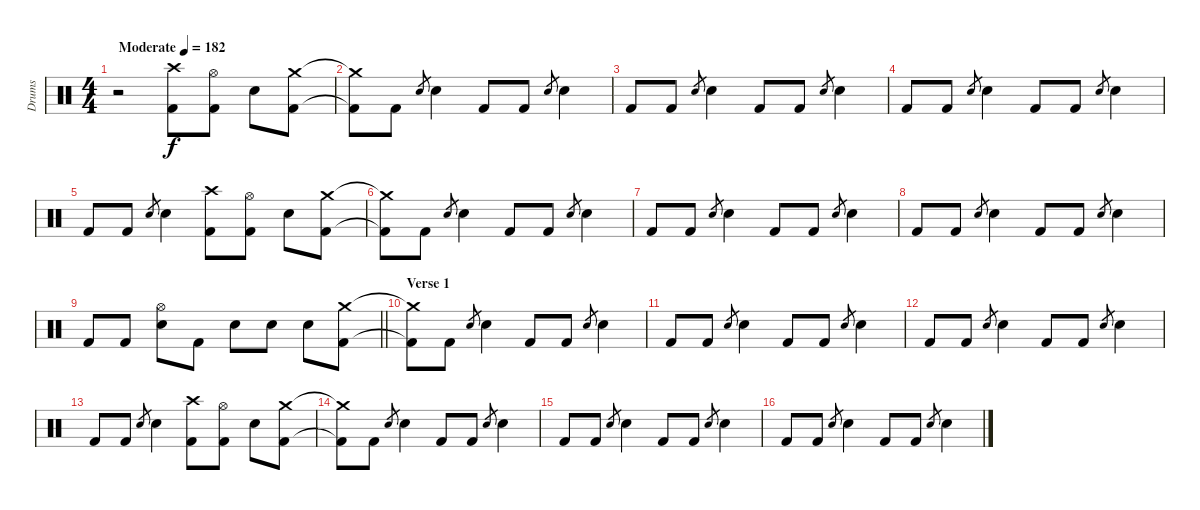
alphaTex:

\track ("Drums" "Drums") {instrument percussion}
\staff {score}
\articulation defaults
\ts (4 4)
\tempo (182 "Moderate")
\clef neutral
\ks c
r.2{dy f} ("Crash high (hit)" "Kick (hit) 2").8 ("Hi-Hat (open)" "Kick (hit) 2").8 "Snare (hit) 2".8 ("Crash medium (hit)" "Kick (hit) 2").8 |
("Crash medium (hit)"{t} "Kick (hit) 2"{t}).8 "Kick (hit) 2".8 "Snare (hit) 2".8{gr} "Snare (hit) 2".4 "Kick (hit) 2".8 "Kick (hit) 2".8 "Snare (hit) 2".8{gr} "Snare (hit) 2".4 |
"Kick (hit) 2".8 "Kick (hit) 2".8 "Snare (hit) 2".8{gr} "Snare (hit) 2".4 "Kick (hit) 2".8 "Kick (hit) 2".8 "Snare (hit) 2".8{gr} "Snare (hit) 2".4 |
"Kick (hit) 2".8 "Kick (hit) 2".8 "Snare (hit) 2".8{gr} "Snare (hit) 2".4 "Kick (hit) 2".8 "Kick (hit) 2".8 "Snare (hit) 2".8{gr} "Snare (hit) 2".4 |
"Kick (hit) 2".8 "Kick (hit) 2".8 "Snare (hit) 2".8{gr} "Snare (hit) 2".4 ("Crash high (hit)" "Kick (hit) 2").8 ("Hi-Hat (open)" "Kick (hit) 2").8 "Snare (hit) 2".8 ("Crash medium (hit)" "Kick (hit) 2").8 |
("Crash medium (hit)"{t} "Kick (hit) 2"{t}).8 "Kick (hit) 2".8 "Snare (hit) 2".8{gr} "Snare (hit) 2".4 "Kick (hit) 2".8 "Kick (hit) 2".8 "Snare (hit) 2".8{gr} "Snare (hit) 2".4 |
"Kick (hit) 2".8 "Kick (hit) 2".8 "Snare (hit) 2".8{gr} "Snare (hit) 2".4 "Kick (hit) 2".8 "Kick (hit) 2".8 "Snare (hit) 2".8{gr} "Snare (hit) 2".4 |
"Kick (hit) 2".8 "Kick (hit) 2".8 "Snare (hit) 2".8{gr} "Snare (hit) 2".4 "Kick (hit) 2".8 "Kick (hit) 2".8 "Snare (hit) 2".8{gr} "Snare (hit) 2".4 |
\barLineRight lightlight "Kick (hit) 2".8 "Kick (hit) 2".8
("Hi-Hat (open)" "Snare (hit) 2").8 "Kick (hit) 2".8 "Snare (hit) 2".8 "Snare (hit) 2".8 "Snare (hit) 2".8 ("Crash medium (hit)" "Kick (hit) 2").8 |
\section ("" "Verse 1")
("Crash medium (hit)"{t} "Kick (hit) 2"{t}).8 "Kick (hit) 2".8 "Snare (hit) 2".8{gr} "Snare (hit) 2".4 "Kick (hit) 2".8 "Kick (hit) 2".8 "Snare (hit) 2".8{gr} "Snare (hit) 2".4 |
"Kick (hit) 2".8 "Kick (hit) 2".8 "Snare (hit) 2".8{gr} "Snare (hit) 2".4 "Kick (hit) 2".8 "Kick (hit) 2".8 "Snare (hit) 2".8{gr} "Snare (hit) 2".4 |
"Kick (hit) 2".8 "Kick (hit) 2".8 "Snare (hit) 2".8{gr} "Snare (hit) 2".4 "Kick (hit) 2".8 "Kick (hit) 2".8 "Snare (hit) 2".8{gr} "Snare (hit) 2".4 |
"Kick (hit) 2".8 "Kick (hit) 2".8 "Snare (hit) 2".8{gr} "Snare (hit) 2".4 ("Crash high (hit)" "Kick (hit) 2").8 ("Hi-Hat (open)" "Kick (hit) 2").8 "Snare (hit) 2".8 ("Crash medium (hit)" "Kick (hit) 2").8 |
("Crash medium (hit)"{t} "Kick (hit) 2"{t}).8 "Kick (hit) 2".8 "Snare (hit) 2".8{gr} "Snare (hit) 2".4 "Kick (hit) 2".8 "Kick (hit) 2".8 "Snare (hit) 2".8{gr} "Snare (hit) 2".4 |
"Kick (hit) 2".8 "Kick (hit) 2".8 "Snare (hit) 2".8{gr} "Snare (hit) 2".4 "Kick (hit) 2".8 "Kick (hit) 2".8 "Snare (hit) 2".8{gr} "Snare (hit) 2".4 |
"Kick (hit) 2".8 "Kick (hit) 2".8 "Snare (hit) 2".8{gr} "Snare (hit) 2".4 "Kick (hit) 2".8 "Kick (hit) 2".8 "Snare (hit) 2".8{gr} "Snare (hit) 2".4
